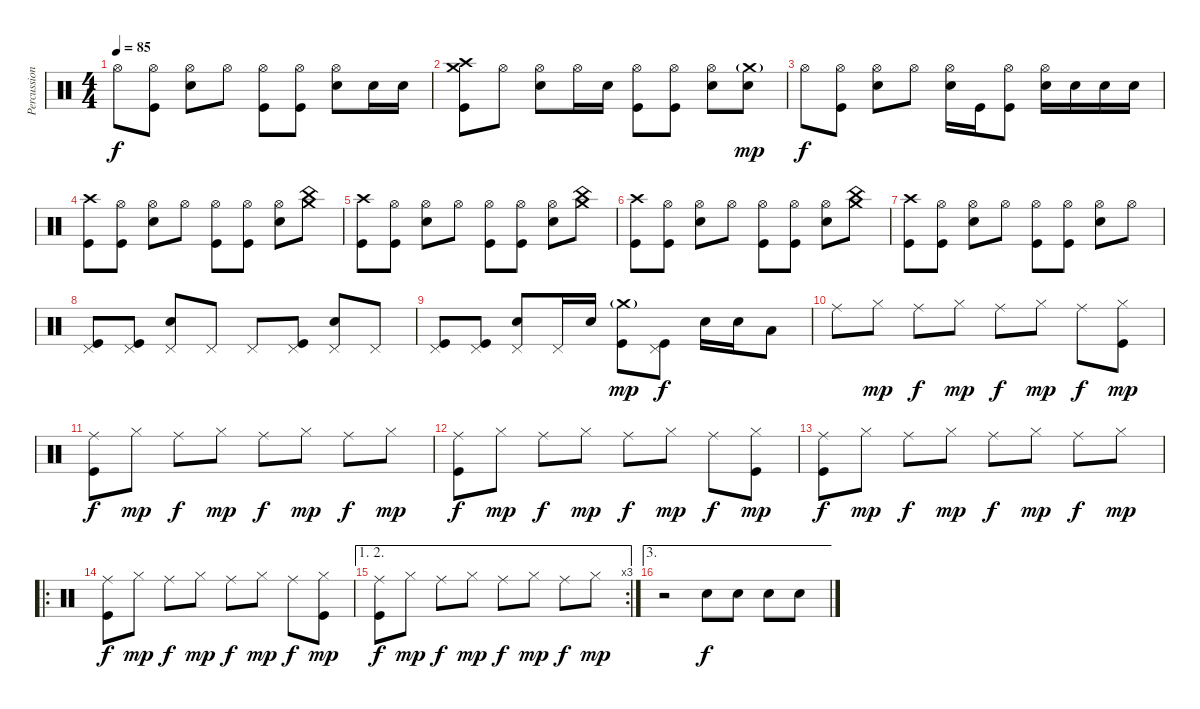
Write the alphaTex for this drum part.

\track ("Percussions" "Percussion") {instrument percussion}
\staff {score}
\articulation defaults
\ts (4 4)
\tempo 85
\clef neutral
\ks c "Hi-Hat (open)".8{dy f}
("Hi-Hat (open)" "Kick (hit)").8 ("Hi-Hat (open)" "Electric Snare (hit)").8 "Hi-Hat (open)".8 ("Hi-Hat (open)" "Kick (hit)").8 ("Hi-Hat (open)" "Kick (hit)").8 ("Hi-Hat (open)" "Electric Snare (hit)").8 "Snare (hit) 2".16 "Snare (hit) 2".16 |
("Crash high (hit)" "Crash medium (hit)" "Kick (hit)").8 "Hi-Hat (open)".8 ("Hi-Hat (open)" "Electric Snare (hit)").8 "Hi-Hat (open)".16 "Electric Snare (hit)".16 ("Hi-Hat (open)" "Kick (hit)").8 ("Hi-Hat (open)" "Kick (hit)").8 ("Hi-Hat (open)" "Electric Snare (hit)").8 ("Crash medium (hit)"{g} "Snare (hit) 2").8{dy mp} |
"Hi-Hat (open)".8{dy f} ("Hi-Hat (open)" "Kick (hit)").8 ("Hi-Hat (open)" "Electric Snare (hit)").8 "Hi-Hat (open)".8 ("Hi-Hat (open)" "Electric Snare (hit)").16 "Kick (hit)".16 ("Hi-Hat (open)" "Kick (hit)").8 ("Hi-Hat (open)" "Snare (hit) 2").16 "Snare (hit) 2".16 "Snare (hit) 2".16 "Snare (hit) 2".16 |
("Crash high (hit)" "Kick (hit)").8 ("Hi-Hat (open)" "Kick (hit)").8 ("Hi-Hat (open)" "Electric Snare (hit)").8 "Hi-Hat (open)".8 ("Hi-Hat (open)" "Kick (hit)").8 ("Hi-Hat (open)" "Kick (hit)").8 ("Hi-Hat (open)" "Electric Snare (hit)").8 ("Crash medium (hit)" "China (hit)").8 |
("Crash high (hit)" "Kick (hit)").8 ("Hi-Hat (open)" "Kick (hit)").8 ("Hi-Hat (open)" "Electric Snare (hit)").8 "Hi-Hat (open)".8 ("Hi-Hat (open)" "Kick (hit)").8 ("Hi-Hat (open)" "Kick (hit)").8 ("Hi-Hat (open)" "Electric Snare (hit)").8 ("Crash medium (hit)" "China (hit)").8 |
("Crash high (hit)" "Kick (hit)").8 ("Hi-Hat (open)" "Kick (hit)").8 ("Hi-Hat (open)" "Electric Snare (hit)").8 "Hi-Hat (open)".8 ("Hi-Hat (open)" "Kick (hit)").8 ("Hi-Hat (open)" "Kick (hit)").8 ("Hi-Hat (open)" "Electric Snare (hit)").8 ("Crash medium (hit)" "China (hit)").8 |
("Crash high (hit)" "Kick (hit)").8 ("Hi-Hat (open)" "Kick (hit)").8 ("Hi-Hat (open)" "Electric Snare (hit)").8 "Hi-Hat (open)".8 ("Hi-Hat (open)" "Kick (hit)").8 ("Hi-Hat (open)" "Kick (hit)").8 ("Hi-Hat (open)" "Electric Snare (hit)").8 "Hi-Hat (open)".8 |
("Pedal Hi-Hat (hit)" "Kick (hit)").8 ("Pedal Hi-Hat (hit)" "Kick (hit)").8 ("Pedal Hi-Hat (hit)" "Electric Snare (hit)").8 "Pedal Hi-Hat (hit)".8 "Pedal Hi-Hat (hit)".8 ("Pedal Hi-Hat (hit)" "Kick (hit)").8 ("Pedal Hi-Hat (hit)" "Electric Snare (hit)").8 "Pedal Hi-Hat (hit)".8 |
("Pedal Hi-Hat (hit)" "Kick (hit)").8 ("Pedal Hi-Hat (hit)" "Kick (hit)").8 ("Pedal Hi-Hat (hit)" "Electric Snare (hit)").8 "Pedal Hi-Hat (hit)".16 "Electric Snare (hit)".16 ("Crash medium (hit)"{g} "Kick (hit)").8{dy mp} ("Pedal Hi-Hat (hit)" "Kick (hit)").8{dy f} "Electric Snare (hit)".16 "Electric Snare (hit)".16 "Low Tom (hit)".8 |
"Ride (middle)".8{volume 8} "Hi-Hat (closed)".8{dy mp} "Ride (middle)".8{dy f} "Hi-Hat (closed)".8{dy mp} "Ride (middle)".8{dy f} "Hi-Hat (closed)".8{dy mp} "Ride (middle)".8{dy f} ("Hi-Hat (closed)" "Kick (hit)").8{dy mp} |
("Ride (middle)" "Kick (hit)").8{dy f} "Hi-Hat (closed)".8{dy mp} "Ride (middle)".8{dy f} "Hi-Hat (closed)".8{dy mp} "Ride (middle)".8{dy f} "Hi-Hat (closed)".8{dy mp} "Ride (middle)".8{dy f} "Hi-Hat (closed)".8{dy mp} |
("Ride (middle)" "Kick (hit)").8{dy f} "Hi-Hat (closed)".8{dy mp} "Ride (middle)".8{dy f} "Hi-Hat (closed)".8{dy mp} "Ride (middle)".8{dy f} "Hi-Hat (closed)".8{dy mp} "Ride (middle)".8{dy f} ("Hi-Hat (closed)" "Kick (hit)").8{dy mp} |
("Ride (middle)" "Kick (hit)").8{dy f} "Hi-Hat (closed)".8{dy mp} "Ride (middle)".8{dy f} "Hi-Hat (closed)".8{dy mp} "Ride (middle)".8{dy f} "Hi-Hat (closed)".8{dy mp} "Ride (middle)".8{dy f} "Hi-Hat (closed)".8{dy mp} |
\ro
("Ride (middle)" "Kick (hit)").8{dy f} "Hi-Hat (closed)".8{dy mp} "Ride (middle)".8{dy f} "Hi-Hat (closed)".8{dy mp} "Ride (middle)".8{dy f} "Hi-Hat (closed)".8{dy mp} "Ride (middle)".8{dy f} ("Hi-Hat (closed)" "Kick (hit)").8{dy mp} |
\ae (1 2)
\rc 3
("Ride (middle)" "Kick (hit)").8{dy f} "Hi-Hat (closed)".8{dy mp} "Ride (middle)".8{dy f} "Hi-Hat (closed)".8{dy mp} "Ride (middle)".8{dy f} "Hi-Hat (closed)".8{dy mp} "Ride (middle)".8{dy f} "Hi-Hat (closed)".8{dy mp} |
\ae 3
r.2{volume 4} "Snare (hit) 2".8{dy f volume 10} "Snare (hit) 2".8 "Snare (hit) 2".8 "Snare (hit) 2".8
